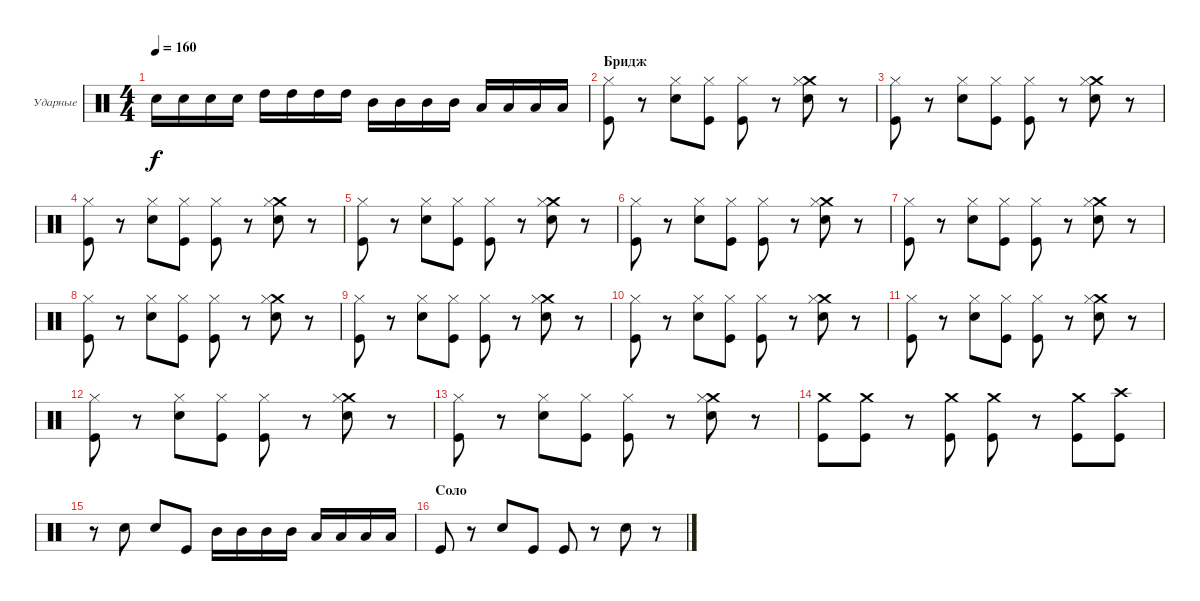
\bracketExtendMode groupsimilarinstruments
\firstSystemTrackNameOrientation horizontal
\otherSystemsTrackNameOrientation horizontal
\track ("Александр Львов" "Ударные") {instrument percussion}
\staff {score}
\articulation defaults
\ts (4 4)
\tempo 160
\clef neutral
\ks c "Snare (hit) 2".16{dy f} "Snare (hit) 2".16 "Snare (hit) 2".16 "Snare (hit) 2".16 "High Tom (hit)".16 "High Tom (hit)".16 "High Tom (hit)".16 "High Tom (hit)".16 "Mid Tom (hit)".16 "Mid Tom (hit)".16 "Mid Tom (hit)".16 "Mid Tom (hit)".16 "Low Tom (hit)".16 "Low Tom (hit)".16 "Low Tom (hit)".16 "Low Tom (hit)".16
|
\section ("" "Бридж")
("Kick (hit)" "Hi-Hat (closed)").8 r.8 ("Snare (hit) 2" "Hi-Hat (closed)").8 ("Kick (hit)" "Hi-Hat (closed)").8 ("Kick (hit)" "Hi-Hat (closed)").8 r.8 ("Snare (hit) 2" "Crash medium (hit)" "Hi-Hat (closed)").8 r.8 |
("Kick (hit)" "Hi-Hat (closed)").8 r.8 ("Snare (hit) 2" "Hi-Hat (closed)").8 ("Kick (hit)" "Hi-Hat (closed)").8 ("Kick (hit)" "Hi-Hat (closed)").8 r.8 ("Snare (hit) 2" "Crash medium (hit)" "Hi-Hat (closed)").8 r.8 |
("Kick (hit)" "Hi-Hat (closed)").8 r.8 ("Snare (hit) 2" "Hi-Hat (closed)").8 ("Kick (hit)" "Hi-Hat (closed)").8 ("Kick (hit)" "Hi-Hat (closed)").8 r.8 ("Snare (hit) 2" "Crash medium (hit)" "Hi-Hat (closed)").8 r.8 |
("Kick (hit)" "Hi-Hat (closed)").8 r.8 ("Snare (hit) 2" "Hi-Hat (closed)").8 ("Kick (hit)" "Hi-Hat (closed)").8 ("Kick (hit)" "Hi-Hat (closed)").8 r.8 ("Snare (hit) 2" "Crash medium (hit)" "Hi-Hat (closed)").8 r.8 |
("Kick (hit)" "Hi-Hat (closed)").8 r.8 ("Snare (hit) 2" "Hi-Hat (closed)").8 ("Kick (hit)" "Hi-Hat (closed)").8 ("Kick (hit)" "Hi-Hat (closed)").8 r.8 ("Snare (hit) 2" "Crash medium (hit)" "Hi-Hat (closed)").8 r.8 |
("Kick (hit)" "Hi-Hat (closed)").8 r.8 ("Snare (hit) 2" "Hi-Hat (closed)").8 ("Kick (hit)" "Hi-Hat (closed)").8 ("Kick (hit)" "Hi-Hat (closed)").8 r.8 ("Snare (hit) 2" "Crash medium (hit)" "Hi-Hat (closed)").8 r.8 |
("Kick (hit)" "Hi-Hat (closed)").8 r.8 ("Snare (hit) 2" "Hi-Hat (closed)").8 ("Kick (hit)" "Hi-Hat (closed)").8 ("Kick (hit)" "Hi-Hat (closed)").8 r.8 ("Snare (hit) 2" "Crash medium (hit)" "Hi-Hat (closed)").8 r.8 |
("Kick (hit)" "Hi-Hat (closed)").8 r.8 ("Snare (hit) 2" "Hi-Hat (closed)").8 ("Kick (hit)" "Hi-Hat (closed)").8 ("Kick (hit)" "Hi-Hat (closed)").8 r.8 ("Snare (hit) 2" "Crash medium (hit)" "Hi-Hat (closed)").8 r.8 |
("Kick (hit)" "Hi-Hat (closed)").8 r.8 ("Snare (hit) 2" "Hi-Hat (closed)").8 ("Kick (hit)" "Hi-Hat (closed)").8 ("Kick (hit)" "Hi-Hat (closed)").8 r.8 ("Snare (hit) 2" "Crash medium (hit)" "Hi-Hat (closed)").8 r.8 |
("Kick (hit)" "Hi-Hat (closed)").8 r.8 ("Snare (hit) 2" "Hi-Hat (closed)").8 ("Kick (hit)" "Hi-Hat (closed)").8 ("Kick (hit)" "Hi-Hat (closed)").8 r.8 ("Snare (hit) 2" "Crash medium (hit)" "Hi-Hat (closed)").8 r.8 |
("Kick (hit)" "Hi-Hat (closed)").8 r.8 ("Snare (hit) 2" "Hi-Hat (closed)").8 ("Kick (hit)" "Hi-Hat (closed)").8 ("Kick (hit)" "Hi-Hat (closed)").8 r.8 ("Snare (hit) 2" "Crash medium (hit)" "Hi-Hat (closed)").8 r.8 |
("Kick (hit)" "Hi-Hat (closed)").8 r.8 ("Snare (hit) 2" "Hi-Hat (closed)").8 ("Kick (hit)" "Hi-Hat (closed)").8 ("Kick (hit)" "Hi-Hat (closed)").8 r.8 ("Snare (hit) 2" "Crash medium (hit)" "Hi-Hat (closed)").8 r.8 |
("Kick (hit)" "Crash medium (hit)").8 ("Kick (hit)" "Crash medium (hit)").8 r.8 ("Kick (hit)" "Crash medium (hit)").8 ("Kick (hit)" "Crash medium (hit)").8 r.8 ("Kick (hit)" "Crash medium (hit)").8 ("Kick (hit)" "Crash high (hit)").8 |
r.8 "Snare (hit) 2".8 "Snare (hit) 2".8 "Kick (hit)".8 "Mid Tom (hit)".16 "Mid Tom (hit)".16 "Mid Tom (hit)".16 "Mid Tom (hit)".16 "Low Tom (hit)".16 "Low Tom (hit)".16 "Low Tom (hit)".16 "Low Tom (hit)".16 |
\section ("" "Соло")
"Kick (hit)".8 r.8 "Snare (hit) 2".8 "Kick (hit)".8 "Kick (hit)".8 r.8 "Snare (hit) 2".8 r.8
